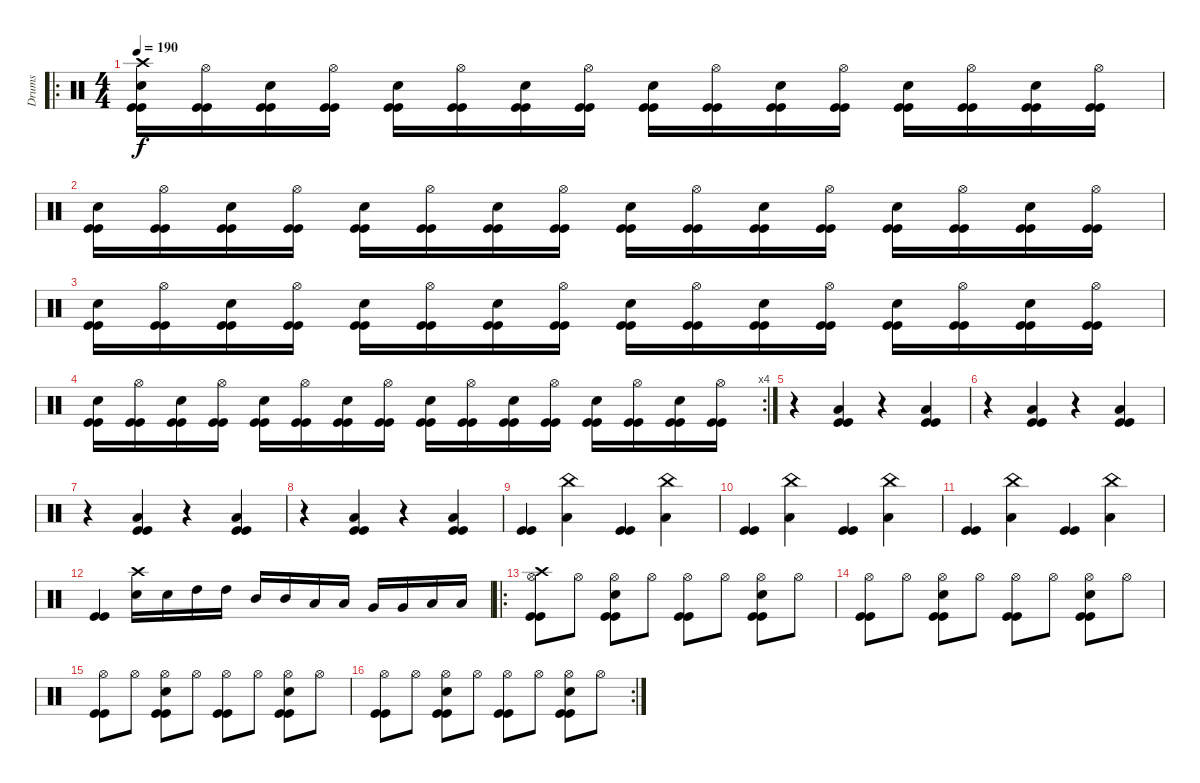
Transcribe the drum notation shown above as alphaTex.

\track ("Drums" "Drums") {instrument percussion}
\staff {score}
\articulation defaults
\ro
\ts (4 4)
\tempo 190
\clef neutral
\ks c
("Crash high (hit)" "Snare (hit) 2" "Kick (hit)" "Kick (hit)").16{dy f} ("Hi-Hat (open)" "Kick (hit)" "Kick (hit)").16 ("Snare (hit) 2" "Kick (hit)" "Kick (hit)").16 ("Hi-Hat (open)" "Kick (hit)" "Kick (hit)").16 ("Snare (hit) 2" "Kick (hit)" "Kick (hit)").16 ("Hi-Hat (open)" "Kick (hit)" "Kick (hit)").16 ("Snare (hit) 2" "Kick (hit)" "Kick (hit)").16 ("Hi-Hat (open)" "Kick (hit)" "Kick (hit)").16 ("Snare (hit) 2" "Kick (hit)" "Kick (hit)").16 ("Hi-Hat (open)" "Kick (hit)" "Kick (hit)").16 ("Snare (hit) 2" "Kick (hit)" "Kick (hit)").16 ("Hi-Hat (open)" "Kick (hit)" "Kick (hit)").16 ("Snare (hit) 2" "Kick (hit)" "Kick (hit)").16 ("Hi-Hat (open)" "Kick (hit)" "Kick (hit)").16 ("Snare (hit) 2" "Kick (hit)" "Kick (hit)").16 ("Hi-Hat (open)" "Kick (hit)" "Kick (hit)").16 |
("Snare (hit) 2" "Kick (hit)" "Kick (hit)").16 ("Hi-Hat (open)" "Kick (hit)" "Kick (hit)").16 ("Snare (hit) 2" "Kick (hit)" "Kick (hit)").16 ("Hi-Hat (open)" "Kick (hit)" "Kick (hit)").16 ("Snare (hit) 2" "Kick (hit)" "Kick (hit)").16 ("Hi-Hat (open)" "Kick (hit)" "Kick (hit)").16 ("Snare (hit) 2" "Kick (hit)" "Kick (hit)").16 ("Hi-Hat (open)" "Kick (hit)" "Kick (hit)").16 ("Snare (hit) 2" "Kick (hit)" "Kick (hit)").16 ("Hi-Hat (open)" "Kick (hit)" "Kick (hit)").16 ("Snare (hit) 2" "Kick (hit)" "Kick (hit)").16 ("Hi-Hat (open)" "Kick (hit)" "Kick (hit)").16 ("Snare (hit) 2" "Kick (hit)" "Kick (hit)").16 ("Hi-Hat (open)" "Kick (hit)" "Kick (hit)").16 ("Snare (hit) 2" "Kick (hit)" "Kick (hit)").16 ("Hi-Hat (open)" "Kick (hit)" "Kick (hit)").16 |
("Snare (hit) 2" "Kick (hit)" "Kick (hit)").16 ("Hi-Hat (open)" "Kick (hit)" "Kick (hit)").16 ("Snare (hit) 2" "Kick (hit)" "Kick (hit)").16 ("Hi-Hat (open)" "Kick (hit)" "Kick (hit)").16 ("Snare (hit) 2" "Kick (hit)" "Kick (hit)").16 ("Hi-Hat (open)" "Kick (hit)" "Kick (hit)").16 ("Snare (hit) 2" "Kick (hit)" "Kick (hit)").16 ("Hi-Hat (open)" "Kick (hit)" "Kick (hit)").16 ("Snare (hit) 2" "Kick (hit)" "Kick (hit)").16 ("Hi-Hat (open)" "Kick (hit)" "Kick (hit)").16 ("Snare (hit) 2" "Kick (hit)" "Kick (hit)").16 ("Hi-Hat (open)" "Kick (hit)" "Kick (hit)").16 ("Snare (hit) 2" "Kick (hit)" "Kick (hit)").16 ("Hi-Hat (open)" "Kick (hit)" "Kick (hit)").16 ("Snare (hit) 2" "Kick (hit)" "Kick (hit)").16 ("Hi-Hat (open)" "Kick (hit)" "Kick (hit)").16 |
\rc 4
("Snare (hit) 2" "Kick (hit)" "Kick (hit)").16 ("Hi-Hat (open)" "Kick (hit)" "Kick (hit)").16 ("Snare (hit) 2" "Kick (hit)" "Kick (hit)").16 ("Hi-Hat (open)" "Kick (hit)" "Kick (hit)").16 ("Snare (hit) 2" "Kick (hit)" "Kick (hit)").16 ("Hi-Hat (open)" "Kick (hit)" "Kick (hit)").16 ("Snare (hit) 2" "Kick (hit)" "Kick (hit)").16 ("Hi-Hat (open)" "Kick (hit)" "Kick (hit)").16 ("Snare (hit) 2" "Kick (hit)" "Kick (hit)").16 ("Hi-Hat (open)" "Kick (hit)" "Kick (hit)").16 ("Snare (hit) 2" "Kick (hit)" "Kick (hit)").16 ("Hi-Hat (open)" "Kick (hit)" "Kick (hit)").16 ("Snare (hit) 2" "Kick (hit)" "Kick (hit)").16 ("Hi-Hat (open)" "Kick (hit)" "Kick (hit)").16 ("Snare (hit) 2" "Kick (hit)" "Kick (hit)").16 ("Hi-Hat (open)" "Kick (hit)" "Kick (hit)").16 |
r.4 ("Low Tom (hit)" "Kick (hit)" "Kick (hit)").4 r.4 ("Low Tom (hit)" "Kick (hit)" "Kick (hit)").4 |
r.4 ("Low Tom (hit)" "Kick (hit)" "Kick (hit)").4 r.4 ("Low Tom (hit)" "Kick (hit)" "Kick (hit)").4 |
r.4 ("Low Tom (hit)" "Kick (hit)" "Kick (hit)").4 r.4 ("Low Tom (hit)" "Kick (hit)" "Kick (hit)").4 |
r.4 ("Low Tom (hit)" "Kick (hit)" "Kick (hit)").4 r.4 ("Low Tom (hit)" "Kick (hit)" "Kick (hit)").4 |
("Kick (hit)" "Kick (hit)").4 ("China (hit)" "Low Tom (hit)").4 ("Kick (hit)" "Kick (hit)").4 ("China (hit)" "Low Tom (hit)").4 |
("Kick (hit)" "Kick (hit)").4 ("China (hit)" "Low Tom (hit)").4 ("Kick (hit)" "Kick (hit)").4 ("China (hit)" "Low Tom (hit)").4 |
("Kick (hit)" "Kick (hit)").4 ("China (hit)" "Low Tom (hit)").4 ("Kick (hit)" "Kick (hit)").4 ("China (hit)" "Low Tom (hit)").4 |
("Kick (hit)" "Kick (hit)").4 ("Crash high (hit)" "Snare (hit) 2").16 "Snare (hit) 2".16 "High Tom (hit)".16 "High Tom (hit)".16 "Mid Tom (hit)".16 "Mid Tom (hit)".16 "Low Tom (hit)".16 "Low Tom (hit)".16 "Very Low Tom (hit)".16 "Very Low Tom (hit)".16 "Low Floor Tom (hit)".16 "Low Floor Tom (hit)".16 |
\ro
("Crash high (hit)" "Hi-Hat (open)" "Kick (hit)" "Kick (hit)").8 "Hi-Hat (open)".8 ("Snare (hit) 2" "Hi-Hat (open)" "Kick (hit)" "Kick (hit)").8 "Hi-Hat (open)".8 ("Hi-Hat (open)" "Kick (hit)" "Kick (hit)").8 "Hi-Hat (open)".8 ("Snare (hit) 2" "Hi-Hat (open)" "Kick (hit)" "Kick (hit)").8 "Hi-Hat (open)".8 |
("Hi-Hat (open)" "Kick (hit)" "Kick (hit)").8 "Hi-Hat (open)".8 ("Snare (hit) 2" "Hi-Hat (open)" "Kick (hit)" "Kick (hit)").8 "Hi-Hat (open)".8 ("Hi-Hat (open)" "Kick (hit)" "Kick (hit)").8 "Hi-Hat (open)".8 ("Snare (hit) 2" "Hi-Hat (open)" "Kick (hit)" "Kick (hit)").8 "Hi-Hat (open)".8 |
("Hi-Hat (open)" "Kick (hit)" "Kick (hit)").8 "Hi-Hat (open)".8 ("Snare (hit) 2" "Hi-Hat (open)" "Kick (hit)" "Kick (hit)").8 "Hi-Hat (open)".8 ("Hi-Hat (open)" "Kick (hit)" "Kick (hit)").8 "Hi-Hat (open)".8 ("Snare (hit) 2" "Hi-Hat (open)" "Kick (hit)" "Kick (hit)").8 "Hi-Hat (open)".8 |
\rc 2
("Hi-Hat (open)" "Kick (hit)" "Kick (hit)").8 "Hi-Hat (open)".8 ("Snare (hit) 2" "Hi-Hat (open)" "Kick (hit)" "Kick (hit)").8 "Hi-Hat (open)".8 ("Hi-Hat (open)" "Kick (hit)" "Kick (hit)").8 "Hi-Hat (open)".8 ("Snare (hit) 2" "Hi-Hat (open)" "Kick (hit)" "Kick (hit)").8 "Hi-Hat (open)".8
